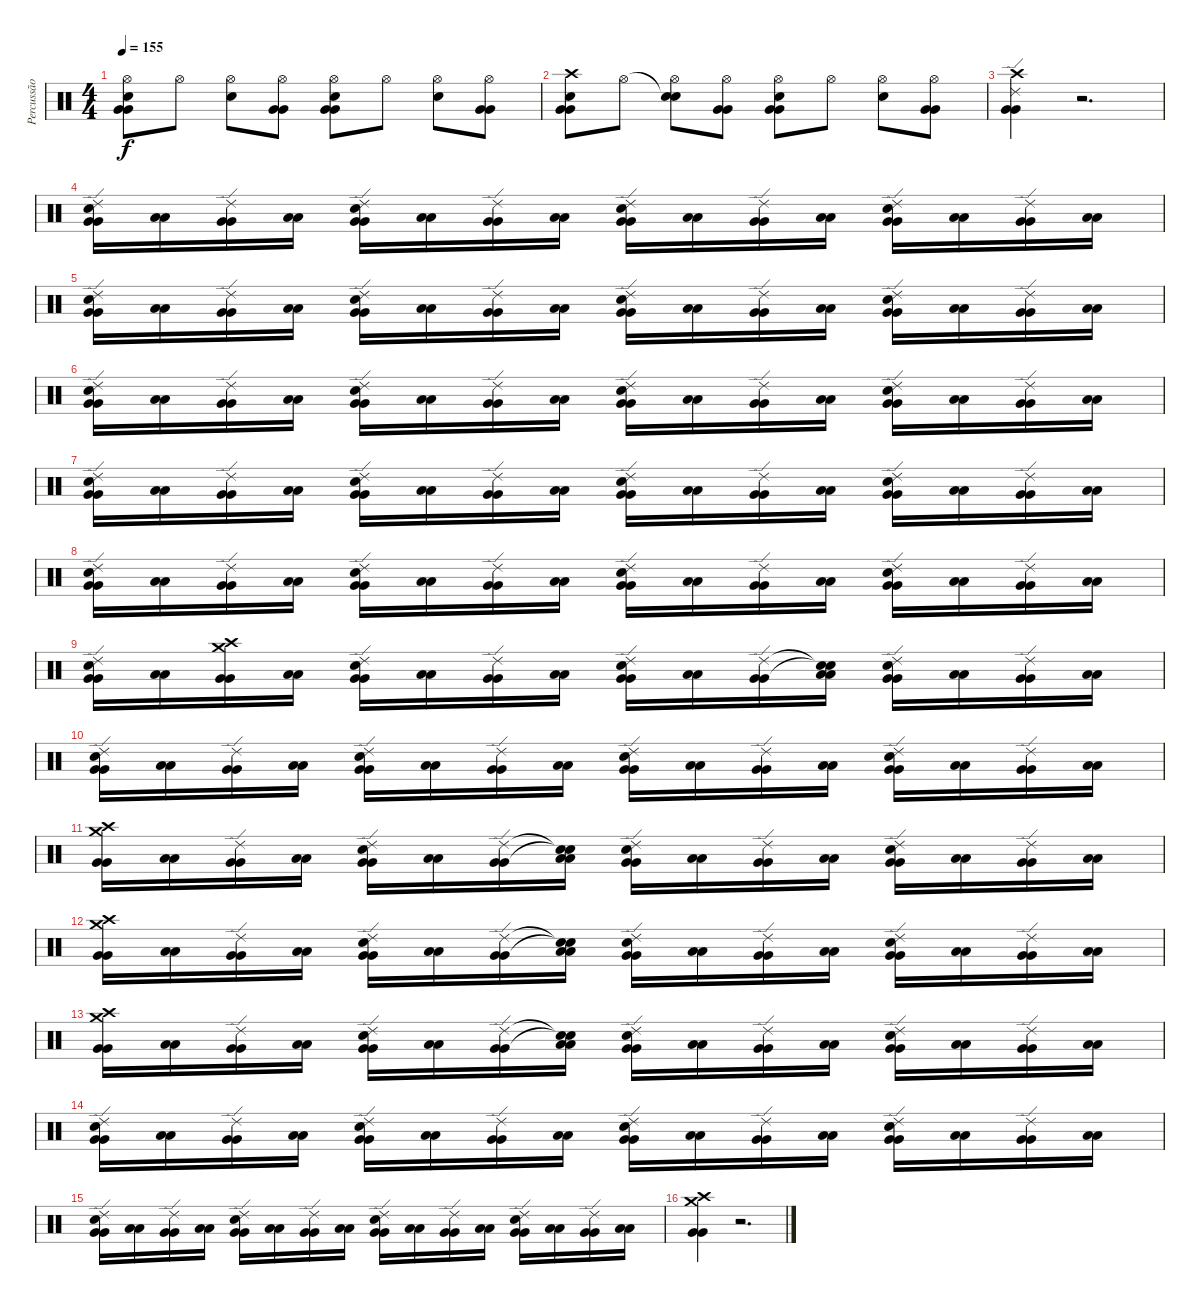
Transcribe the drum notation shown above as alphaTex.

\track ("Percussão" "Percussão") {instrument percussion}
\staff {score}
\articulation defaults
\ts (4 4)
\tempo 155
\clef neutral
\ks c
("Hi-Hat (open)" "Electric Snare (hit)" "Very Low Tom (hit)" "Very Low Tom (hit)").8{dy f} "Hi-Hat (open)".8 ("Hi-Hat (open)" "Electric Snare (hit)").8 ("Hi-Hat (open)" "Very Low Tom (hit)" "Very Low Tom (hit)").8 ("Hi-Hat (open)" "Electric Snare (hit)" "Very Low Tom (hit)" "Very Low Tom (hit)").8 "Hi-Hat (open)".8 ("Hi-Hat (open)" "Electric Snare (hit)").8 ("Hi-Hat (open)" "Very Low Tom (hit)" "Very Low Tom (hit)").8 |
("Crash high (hit)" "Electric Snare (hit)" "Very Low Tom (hit)" "Very Low Tom (hit)").8 "Hi-Hat (open)".8 ("Snare (hit)"{t} "Hi-Hat (open)" "Electric Snare (hit)").8 ("Hi-Hat (open)" "Very Low Tom (hit)" "Very Low Tom (hit)").8 ("Hi-Hat (open)" "Electric Snare (hit)" "Very Low Tom (hit)" "Very Low Tom (hit)").8 "Hi-Hat (open)".8 ("Hi-Hat (open)" "Electric Snare (hit)").8 ("Hi-Hat (open)" "Very Low Tom (hit)" "Very Low Tom (hit)").8 |
("Crash high (hit)" "Ride (edge) 2" "Very Low Tom (hit)" "Very Low Tom (hit)").4 r.2{d} |
("Electric Snare (hit)" "Ride (edge) 2" "Very Low Tom (hit)" "Very Low Tom (hit)").16 ("Low Floor Tom (hit)" "Low Floor Tom (hit)").16 ("Ride (edge) 2" "Very Low Tom (hit)" "Very Low Tom (hit)").16 ("Low Floor Tom (hit)" "Low Floor Tom (hit)").16 ("Electric Snare (hit)" "Ride (edge) 2" "Very Low Tom (hit)" "Very Low Tom (hit)").16 ("Low Floor Tom (hit)" "Low Floor Tom (hit)").16 ("Ride (edge) 2" "Very Low Tom (hit)" "Very Low Tom (hit)").16 ("Low Floor Tom (hit)" "Low Floor Tom (hit)").16 ("Electric Snare (hit)" "Ride (edge) 2" "Very Low Tom (hit)" "Very Low Tom (hit)").16 ("Low Floor Tom (hit)" "Low Floor Tom (hit)").16 ("Ride (edge) 2" "Very Low Tom (hit)" "Very Low Tom (hit)").16 ("Low Floor Tom (hit)" "Low Floor Tom (hit)").16 ("Electric Snare (hit)" "Ride (edge) 2" "Very Low Tom (hit)" "Very Low Tom (hit)").16 ("Low Floor Tom (hit)" "Low Floor Tom (hit)").16 ("Ride (edge) 2" "Very Low Tom (hit)" "Very Low Tom (hit)").16 ("Low Floor Tom (hit)" "Low Floor Tom (hit)").16 |
("Electric Snare (hit)" "Ride (edge) 2" "Very Low Tom (hit)" "Very Low Tom (hit)").16 ("Low Floor Tom (hit)" "Low Floor Tom (hit)").16 ("Ride (edge) 2" "Very Low Tom (hit)" "Very Low Tom (hit)").16 ("Low Floor Tom (hit)" "Low Floor Tom (hit)").16 ("Electric Snare (hit)" "Ride (edge) 2" "Very Low Tom (hit)" "Very Low Tom (hit)").16 ("Low Floor Tom (hit)" "Low Floor Tom (hit)").16 ("Ride (edge) 2" "Very Low Tom (hit)" "Very Low Tom (hit)").16 ("Low Floor Tom (hit)" "Low Floor Tom (hit)").16 ("Electric Snare (hit)" "Ride (edge) 2" "Very Low Tom (hit)" "Very Low Tom (hit)").16 ("Low Floor Tom (hit)" "Low Floor Tom (hit)").16 ("Ride (edge) 2" "Very Low Tom (hit)" "Very Low Tom (hit)").16 ("Low Floor Tom (hit)" "Low Floor Tom (hit)").16 ("Electric Snare (hit)" "Ride (edge) 2" "Very Low Tom (hit)" "Very Low Tom (hit)").16 ("Low Floor Tom (hit)" "Low Floor Tom (hit)").16 ("Ride (edge) 2" "Very Low Tom (hit)" "Very Low Tom (hit)").16 ("Low Floor Tom (hit)" "Low Floor Tom (hit)").16 |
("Electric Snare (hit)" "Ride (edge) 2" "Very Low Tom (hit)" "Very Low Tom (hit)").16 ("Low Floor Tom (hit)" "Low Floor Tom (hit)").16 ("Ride (edge) 2" "Very Low Tom (hit)" "Very Low Tom (hit)").16 ("Low Floor Tom (hit)" "Low Floor Tom (hit)").16 ("Electric Snare (hit)" "Ride (edge) 2" "Very Low Tom (hit)" "Very Low Tom (hit)").16 ("Low Floor Tom (hit)" "Low Floor Tom (hit)").16 ("Ride (edge) 2" "Very Low Tom (hit)" "Very Low Tom (hit)").16 ("Low Floor Tom (hit)" "Low Floor Tom (hit)").16 ("Electric Snare (hit)" "Ride (edge) 2" "Very Low Tom (hit)" "Very Low Tom (hit)").16 ("Low Floor Tom (hit)" "Low Floor Tom (hit)").16 ("Ride (edge) 2" "Very Low Tom (hit)" "Very Low Tom (hit)").16 ("Low Floor Tom (hit)" "Low Floor Tom (hit)").16 ("Electric Snare (hit)" "Ride (edge) 2" "Very Low Tom (hit)" "Very Low Tom (hit)").16 ("Low Floor Tom (hit)" "Low Floor Tom (hit)").16 ("Ride (edge) 2" "Very Low Tom (hit)" "Very Low Tom (hit)").16 ("Low Floor Tom (hit)" "Low Floor Tom (hit)").16 |
("Electric Snare (hit)" "Ride (edge) 2" "Very Low Tom (hit)" "Very Low Tom (hit)").16 ("Low Floor Tom (hit)" "Low Floor Tom (hit)").16 ("Ride (edge) 2" "Very Low Tom (hit)" "Very Low Tom (hit)").16 ("Low Floor Tom (hit)" "Low Floor Tom (hit)").16 ("Electric Snare (hit)" "Ride (edge) 2" "Very Low Tom (hit)" "Very Low Tom (hit)").16 ("Low Floor Tom (hit)" "Low Floor Tom (hit)").16 ("Ride (edge) 2" "Very Low Tom (hit)" "Very Low Tom (hit)").16 ("Low Floor Tom (hit)" "Low Floor Tom (hit)").16 ("Electric Snare (hit)" "Ride (edge) 2" "Very Low Tom (hit)" "Very Low Tom (hit)").16 ("Low Floor Tom (hit)" "Low Floor Tom (hit)").16 ("Ride (edge) 2" "Very Low Tom (hit)" "Very Low Tom (hit)").16 ("Low Floor Tom (hit)" "Low Floor Tom (hit)").16 ("Electric Snare (hit)" "Ride (edge) 2" "Very Low Tom (hit)" "Very Low Tom (hit)").16 ("Low Floor Tom (hit)" "Low Floor Tom (hit)").16 ("Ride (edge) 2" "Very Low Tom (hit)" "Very Low Tom (hit)").16 ("Low Floor Tom (hit)" "Low Floor Tom (hit)").16 |
("Electric Snare (hit)" "Ride (edge) 2" "Very Low Tom (hit)" "Very Low Tom (hit)").16 ("Low Floor Tom (hit)" "Low Floor Tom (hit)").16 ("Ride (edge) 2" "Very Low Tom (hit)" "Very Low Tom (hit)").16 ("Low Floor Tom (hit)" "Low Floor Tom (hit)").16 ("Electric Snare (hit)" "Ride (edge) 2" "Very Low Tom (hit)" "Very Low Tom (hit)").16 ("Low Floor Tom (hit)" "Low Floor Tom (hit)").16 ("Ride (edge) 2" "Very Low Tom (hit)" "Very Low Tom (hit)").16 ("Low Floor Tom (hit)" "Low Floor Tom (hit)").16 ("Electric Snare (hit)" "Ride (edge) 2" "Very Low Tom (hit)" "Very Low Tom (hit)").16 ("Low Floor Tom (hit)" "Low Floor Tom (hit)").16 ("Ride (edge) 2" "Very Low Tom (hit)" "Very Low Tom (hit)").16 ("Low Floor Tom (hit)" "Low Floor Tom (hit)").16 ("Electric Snare (hit)" "Ride (edge) 2" "Very Low Tom (hit)" "Very Low Tom (hit)").16 ("Low Floor Tom (hit)" "Low Floor Tom (hit)").16 ("Ride (edge) 2" "Very Low Tom (hit)" "Very Low Tom (hit)").16 ("Low Floor Tom (hit)" "Low Floor Tom (hit)").16 |
("Electric Snare (hit)" "Ride (edge) 2" "Very Low Tom (hit)" "Very Low Tom (hit)").16 ("Low Floor Tom (hit)" "Low Floor Tom (hit)").16 ("Crash medium (hit)" "Crash high (hit)" "Very Low Tom (hit)" "Very Low Tom (hit)").16 ("Low Floor Tom (hit)" "Low Floor Tom (hit)").16 ("Electric Snare (hit)" "Ride (edge) 2" "Very Low Tom (hit)" "Very Low Tom (hit)").16 ("Low Floor Tom (hit)" "Low Floor Tom (hit)").16 ("Ride (edge) 2" "Very Low Tom (hit)" "Very Low Tom (hit)").16 ("Low Floor Tom (hit)" "Low Floor Tom (hit)").16 ("Electric Snare (hit)" "Ride (edge) 2" "Very Low Tom (hit)" "Very Low Tom (hit)").16 ("Low Floor Tom (hit)" "Low Floor Tom (hit)").16 ("Ride (edge) 2" "Very Low Tom (hit)" "Very Low Tom (hit)").16 ("Snare (hit)"{t} "Snare (hit)"{t} "Low Floor Tom (hit)" "Low Floor Tom (hit)").16 ("Electric Snare (hit)" "Ride (edge) 2" "Very Low Tom (hit)" "Very Low Tom (hit)").16 ("Low Floor Tom (hit)" "Low Floor Tom (hit)").16 ("Ride (edge) 2" "Very Low Tom (hit)" "Very Low Tom (hit)").16 ("Low Floor Tom (hit)" "Low Floor Tom (hit)").16 |
("Electric Snare (hit)" "Ride (edge) 2" "Very Low Tom (hit)" "Very Low Tom (hit)").16 ("Low Floor Tom (hit)" "Low Floor Tom (hit)").16 ("Ride (edge) 2" "Very Low Tom (hit)" "Very Low Tom (hit)").16 ("Low Floor Tom (hit)" "Low Floor Tom (hit)").16 ("Electric Snare (hit)" "Ride (edge) 2" "Very Low Tom (hit)" "Very Low Tom (hit)").16 ("Low Floor Tom (hit)" "Low Floor Tom (hit)").16 ("Ride (edge) 2" "Very Low Tom (hit)" "Very Low Tom (hit)").16 ("Low Floor Tom (hit)" "Low Floor Tom (hit)").16 ("Electric Snare (hit)" "Ride (edge) 2" "Very Low Tom (hit)" "Very Low Tom (hit)").16 ("Low Floor Tom (hit)" "Low Floor Tom (hit)").16 ("Ride (edge) 2" "Very Low Tom (hit)" "Very Low Tom (hit)").16 ("Low Floor Tom (hit)" "Low Floor Tom (hit)").16 ("Electric Snare (hit)" "Ride (edge) 2" "Very Low Tom (hit)" "Very Low Tom (hit)").16 ("Low Floor Tom (hit)" "Low Floor Tom (hit)").16 ("Ride (edge) 2" "Very Low Tom (hit)" "Very Low Tom (hit)").16 ("Low Floor Tom (hit)" "Low Floor Tom (hit)").16 |
("Crash high (hit)" "Crash medium (hit)" "Very Low Tom (hit)" "Very Low Tom (hit)").16 ("Low Floor Tom (hit)" "Low Floor Tom (hit)").16 ("Ride (edge) 2" "Very Low Tom (hit)" "Very Low Tom (hit)").16 ("Low Floor Tom (hit)" "Low Floor Tom (hit)").16 ("Electric Snare (hit)" "Ride (edge) 2" "Very Low Tom (hit)" "Very Low Tom (hit)").16 ("Low Floor Tom (hit)" "Low Floor Tom (hit)").16 ("Ride (edge) 2" "Very Low Tom (hit)" "Very Low Tom (hit)").16 ("Snare (hit)"{t} "Snare (hit)"{t} "Low Floor Tom (hit)" "Low Floor Tom (hit)").16 ("Electric Snare (hit)" "Ride (edge) 2" "Very Low Tom (hit)" "Very Low Tom (hit)").16 ("Low Floor Tom (hit)" "Low Floor Tom (hit)").16 ("Ride (edge) 2" "Very Low Tom (hit)" "Very Low Tom (hit)").16 ("Low Floor Tom (hit)" "Low Floor Tom (hit)").16 ("Electric Snare (hit)" "Ride (edge) 2" "Very Low Tom (hit)" "Very Low Tom (hit)").16 ("Low Floor Tom (hit)" "Low Floor Tom (hit)").16 ("Ride (edge) 2" "Very Low Tom (hit)" "Very Low Tom (hit)").16 ("Low Floor Tom (hit)" "Low Floor Tom (hit)").16 |
("Crash high (hit)" "Crash medium (hit)" "Very Low Tom (hit)" "Very Low Tom (hit)").16 ("Low Floor Tom (hit)" "Low Floor Tom (hit)").16 ("Ride (edge) 2" "Very Low Tom (hit)" "Very Low Tom (hit)").16 ("Low Floor Tom (hit)" "Low Floor Tom (hit)").16 ("Electric Snare (hit)" "Ride (edge) 2" "Very Low Tom (hit)" "Very Low Tom (hit)").16 ("Low Floor Tom (hit)" "Low Floor Tom (hit)").16 ("Ride (edge) 2" "Very Low Tom (hit)" "Very Low Tom (hit)").16 ("Snare (hit)"{t} "Snare (hit)"{t} "Low Floor Tom (hit)" "Low Floor Tom (hit)").16 ("Electric Snare (hit)" "Ride (edge) 2" "Very Low Tom (hit)" "Very Low Tom (hit)").16 ("Low Floor Tom (hit)" "Low Floor Tom (hit)").16 ("Ride (edge) 2" "Very Low Tom (hit)" "Very Low Tom (hit)").16 ("Low Floor Tom (hit)" "Low Floor Tom (hit)").16 ("Electric Snare (hit)" "Ride (edge) 2" "Very Low Tom (hit)" "Very Low Tom (hit)").16 ("Low Floor Tom (hit)" "Low Floor Tom (hit)").16 ("Ride (edge) 2" "Very Low Tom (hit)" "Very Low Tom (hit)").16 ("Low Floor Tom (hit)" "Low Floor Tom (hit)").16 |
("Crash high (hit)" "Crash medium (hit)" "Very Low Tom (hit)" "Very Low Tom (hit)").16 ("Low Floor Tom (hit)" "Low Floor Tom (hit)").16 ("Ride (edge) 2" "Very Low Tom (hit)" "Very Low Tom (hit)").16 ("Low Floor Tom (hit)" "Low Floor Tom (hit)").16 ("Electric Snare (hit)" "Ride (edge) 2" "Very Low Tom (hit)" "Very Low Tom (hit)").16 ("Low Floor Tom (hit)" "Low Floor Tom (hit)").16 ("Ride (edge) 2" "Very Low Tom (hit)" "Very Low Tom (hit)").16 ("Snare (hit)"{t} "Snare (hit)"{t} "Low Floor Tom (hit)" "Low Floor Tom (hit)").16 ("Electric Snare (hit)" "Ride (edge) 2" "Very Low Tom (hit)" "Very Low Tom (hit)").16 ("Low Floor Tom (hit)" "Low Floor Tom (hit)").16 ("Ride (edge) 2" "Very Low Tom (hit)" "Very Low Tom (hit)").16 ("Low Floor Tom (hit)" "Low Floor Tom (hit)").16 ("Electric Snare (hit)" "Ride (edge) 2" "Very Low Tom (hit)" "Very Low Tom (hit)").16 ("Low Floor Tom (hit)" "Low Floor Tom (hit)").16 ("Ride (edge) 2" "Very Low Tom (hit)" "Very Low Tom (hit)").16 ("Low Floor Tom (hit)" "Low Floor Tom (hit)").16 |
("Electric Snare (hit)" "Ride (edge) 2" "Very Low Tom (hit)" "Very Low Tom (hit)").16 ("Low Floor Tom (hit)" "Low Floor Tom (hit)").16 ("Ride (edge) 2" "Very Low Tom (hit)" "Very Low Tom (hit)").16 ("Low Floor Tom (hit)" "Low Floor Tom (hit)").16 ("Electric Snare (hit)" "Ride (edge) 2" "Very Low Tom (hit)" "Very Low Tom (hit)").16 ("Low Floor Tom (hit)" "Low Floor Tom (hit)").16 ("Ride (edge) 2" "Very Low Tom (hit)" "Very Low Tom (hit)").16 ("Low Floor Tom (hit)" "Low Floor Tom (hit)").16 ("Electric Snare (hit)" "Ride (edge) 2" "Very Low Tom (hit)" "Very Low Tom (hit)").16 ("Low Floor Tom (hit)" "Low Floor Tom (hit)").16 ("Ride (edge) 2" "Very Low Tom (hit)" "Very Low Tom (hit)").16 ("Low Floor Tom (hit)" "Low Floor Tom (hit)").16 ("Electric Snare (hit)" "Ride (edge) 2" "Very Low Tom (hit)" "Very Low Tom (hit)").16 ("Low Floor Tom (hit)" "Low Floor Tom (hit)").16 ("Ride (edge) 2" "Very Low Tom (hit)" "Very Low Tom (hit)").16 ("Low Floor Tom (hit)" "Low Floor Tom (hit)").16 |
("Electric Snare (hit)" "Ride (edge) 2" "Very Low Tom (hit)" "Very Low Tom (hit)").16 ("Low Floor Tom (hit)" "Low Floor Tom (hit)").16 ("Ride (edge) 2" "Very Low Tom (hit)" "Very Low Tom (hit)").16 ("Low Floor Tom (hit)" "Low Floor Tom (hit)").16 ("Electric Snare (hit)" "Ride (edge) 2" "Very Low Tom (hit)" "Very Low Tom (hit)").16 ("Low Floor Tom (hit)" "Low Floor Tom (hit)").16 ("Ride (edge) 2" "Very Low Tom (hit)" "Very Low Tom (hit)").16 ("Low Floor Tom (hit)" "Low Floor Tom (hit)").16 ("Electric Snare (hit)" "Ride (edge) 2" "Very Low Tom (hit)" "Very Low Tom (hit)").16 ("Low Floor Tom (hit)" "Low Floor Tom (hit)").16 ("Ride (edge) 2" "Very Low Tom (hit)" "Very Low Tom (hit)").16 ("Low Floor Tom (hit)" "Low Floor Tom (hit)").16 ("Electric Snare (hit)" "Ride (edge) 2" "Very Low Tom (hit)" "Very Low Tom (hit)").16 ("Low Floor Tom (hit)" "Low Floor Tom (hit)").16 ("Ride (edge) 2" "Very Low Tom (hit)" "Very Low Tom (hit)").16 ("Low Floor Tom (hit)" "Low Floor Tom (hit)").16 |
("Crash high (hit)" "Crash medium (hit)" "Very Low Tom (hit)" "Very Low Tom (hit)").4 r.2{d}
